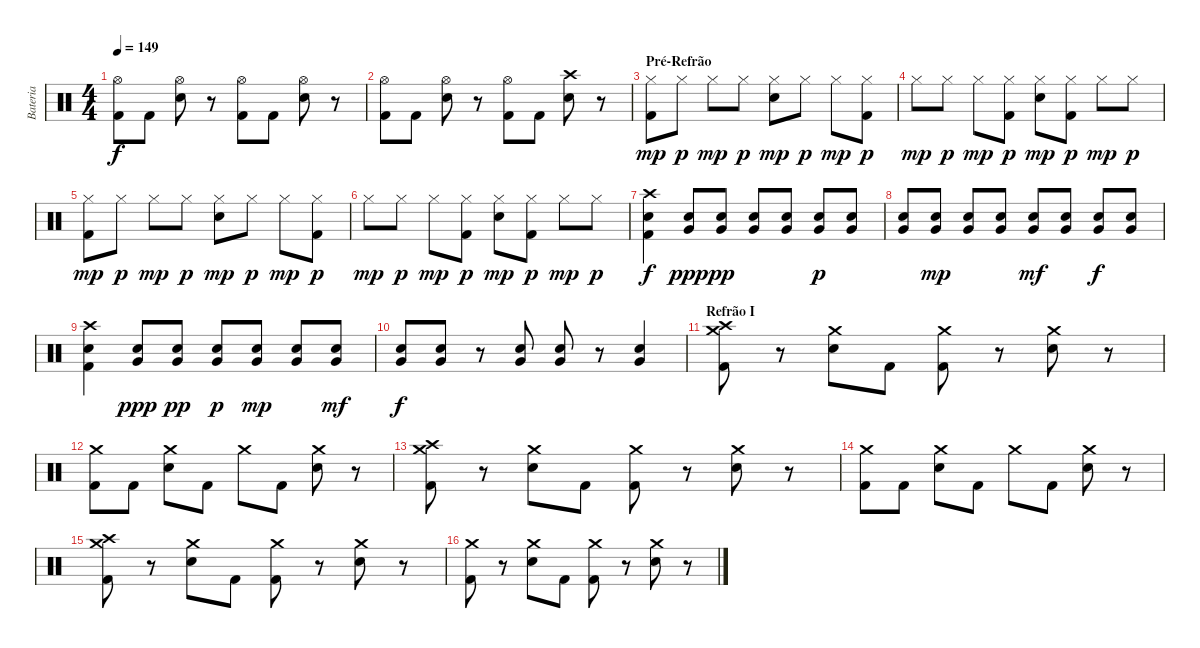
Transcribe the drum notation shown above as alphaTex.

\track ("Bateria" "Bateria") {instrument percussion}
\staff {score}
\articulation defaults
\ts (4 4)
\tempo 149
\clef neutral
\ks c
("Hi-Hat (open)" "Kick (hit) 2").8{dy f} "Kick (hit) 2".8 ("Hi-Hat (open)" "Electric Snare (hit)").8 r.8 ("Hi-Hat (open)" "Kick (hit) 2").8 "Kick (hit) 2".8 ("Hi-Hat (open)" "Electric Snare (hit)").8 r.8 |
("Hi-Hat (open)" "Kick (hit) 2").8 "Kick (hit) 2".8 ("Hi-Hat (open)" "Electric Snare (hit)").8 r.8 ("Hi-Hat (open)" "Kick (hit) 2").8 "Kick (hit) 2".8 ("Crash high (hit)" "Electric Snare (hit)").8 r.8 |
\section ("" "Pré-Refrão")
("Hi-Hat (closed)" "Kick (hit) 2").8{dy mp} "Hi-Hat (closed)".8{dy p} "Hi-Hat (closed)".8{dy mp} "Hi-Hat (closed)".8{dy p} ("Hi-Hat (closed)" "Electric Snare (hit)").8{dy mp} "Hi-Hat (closed)".8{dy p} "Hi-Hat (closed)".8{dy mp} ("Hi-Hat (closed)" "Kick (hit) 2").8{dy p} |
"Hi-Hat (closed)".8{dy mp} "Hi-Hat (closed)".8{dy p} "Hi-Hat (closed)".8{dy mp} ("Hi-Hat (closed)" "Kick (hit) 2").8{dy p} ("Hi-Hat (closed)" "Electric Snare (hit)").8{dy mp} ("Hi-Hat (closed)" "Kick (hit) 2").8{dy p} "Hi-Hat (closed)".8{dy mp} "Hi-Hat (closed)".8{dy p} |
("Hi-Hat (closed)" "Kick (hit) 2").8{dy mp} "Hi-Hat (closed)".8{dy p} "Hi-Hat (closed)".8{dy mp} "Hi-Hat (closed)".8{dy p} ("Hi-Hat (closed)" "Electric Snare (hit)").8{dy mp} "Hi-Hat (closed)".8{dy p} "Hi-Hat (closed)".8{dy mp} ("Hi-Hat (closed)" "Kick (hit) 2").8{dy p} |
"Hi-Hat (closed)".8{dy mp} "Hi-Hat (closed)".8{dy p} "Hi-Hat (closed)".8{dy mp} ("Hi-Hat (closed)" "Kick (hit) 2").8{dy p} ("Hi-Hat (closed)" "Electric Snare (hit)").8{dy mp} ("Hi-Hat (closed)" "Kick (hit) 2").8{dy p} "Hi-Hat (closed)".8{dy mp} "Hi-Hat (closed)".8{dy p} |
("Crash high (hit)" "Electric Snare (hit)" "Kick (hit) 2").4{dy f} ("Very Low Tom (hit)" "Electric Snare (hit)").8{dy ppp} ("Very Low Tom (hit)" "Electric Snare (hit)").8{dy pp} ("Very Low Tom (hit)" "Electric Snare (hit)").8 ("Very Low Tom (hit)" "Electric Snare (hit)").8 ("Very Low Tom (hit)" "Electric Snare (hit)").8{dy p} ("Very Low Tom (hit)" "Electric Snare (hit)").8 |
("Very Low Tom (hit)" "Electric Snare (hit)").8 ("Very Low Tom (hit)" "Electric Snare (hit)").8{dy mp} ("Very Low Tom (hit)" "Electric Snare (hit)").8 ("Very Low Tom (hit)" "Electric Snare (hit)").8 ("Very Low Tom (hit)" "Electric Snare (hit)").8{dy mf} ("Very Low Tom (hit)" "Electric Snare (hit)").8 ("Very Low Tom (hit)" "Electric Snare (hit)").8{dy f} ("Very Low Tom (hit)" "Electric Snare (hit)").8 |
("Crash high (hit)" "Electric Snare (hit)" "Kick (hit) 2").4 ("Very Low Tom (hit)" "Electric Snare (hit)").8{dy ppp} ("Very Low Tom (hit)" "Electric Snare (hit)").8{dy pp} ("Very Low Tom (hit)" "Electric Snare (hit)").8{dy p} ("Very Low Tom (hit)" "Electric Snare (hit)").8{dy mp} ("Very Low Tom (hit)" "Electric Snare (hit)").8 ("Very Low Tom (hit)" "Electric Snare (hit)").8{dy mf} |
("Very Low Tom (hit)" "Electric Snare (hit)").8{dy f} ("Very Low Tom (hit)" "Electric Snare (hit)").8 r.8 ("Very Low Tom (hit)" "Electric Snare (hit)").8 ("Very Low Tom (hit)" "Electric Snare (hit)").8 r.8 ("Very Low Tom (hit)" "Electric Snare (hit)").4 |
\section ("" "Refrão I")
("Crash high (hit)" "Crash medium (hit)" "Kick (hit) 2").8 r.8 ("Crash medium (hit)" "Electric Snare (hit)").8 "Kick (hit) 2".8 ("Crash medium (hit)" "Kick (hit) 2").8 r.8 ("Crash medium (hit)" "Electric Snare (hit)").8 r.8 |
("Crash medium (hit)" "Kick (hit) 2").8 "Kick (hit) 2".8 ("Crash medium (hit)" "Electric Snare (hit)").8 "Kick (hit) 2".8 "Crash medium (hit)".8 "Kick (hit) 2".8 ("Crash medium (hit)" "Electric Snare (hit)").8 r.8 |
("Crash high (hit)" "Crash medium (hit)" "Kick (hit) 2").8 r.8 ("Crash medium (hit)" "Electric Snare (hit)").8 "Kick (hit) 2".8 ("Crash medium (hit)" "Kick (hit) 2").8 r.8 ("Crash medium (hit)" "Electric Snare (hit)").8 r.8 |
("Crash medium (hit)" "Kick (hit) 2").8 "Kick (hit) 2".8 ("Crash medium (hit)" "Electric Snare (hit)").8 "Kick (hit) 2".8 "Crash medium (hit)".8 "Kick (hit) 2".8 ("Crash medium (hit)" "Electric Snare (hit)").8 r.8 |
("Crash high (hit)" "Crash medium (hit)" "Kick (hit) 2").8 r.8 ("Crash medium (hit)" "Electric Snare (hit)").8 "Kick (hit) 2".8 ("Crash medium (hit)" "Kick (hit) 2").8 r.8 ("Crash medium (hit)" "Electric Snare (hit)").8 r.8 |
("Crash medium (hit)" "Kick (hit) 2").8 r.8 ("Crash medium (hit)" "Electric Snare (hit)").8 "Kick (hit) 2".8 ("Crash medium (hit)" "Kick (hit) 2").8 r.8 ("Crash medium (hit)" "Electric Snare (hit)").8 r.8
